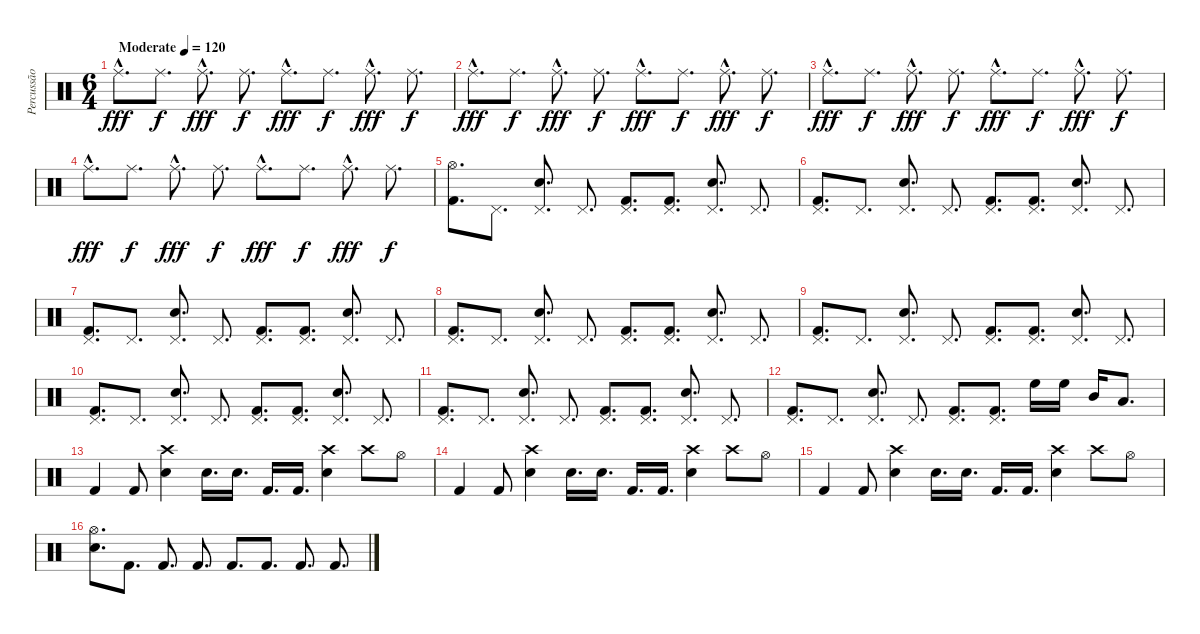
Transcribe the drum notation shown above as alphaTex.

\track ("Percussão" "Percussão") {solo instrument percussion}
\staff {score}
\articulation defaults
\ts (6 4)
\tempo (120 "Moderate")
\clef neutral
\ks c "Ride (middle)"{hac}.8{d dy fff} "Ride (middle)".8{d dy f} "Ride (middle)"{hac}.8{d dy fff} "Ride (middle)".8{d dy f} "Ride (middle)"{hac}.8{d dy fff} "Ride (middle)".8{d dy f} "Ride (middle)"{hac}.8{d dy fff} "Ride (middle)".8{d dy f}
|
"Ride (middle)"{hac}.8{d dy fff} "Ride (middle)".8{d dy f} "Ride (middle)"{hac}.8{d dy fff} "Ride (middle)".8{d dy f} "Ride (middle)"{hac}.8{d dy fff} "Ride (middle)".8{d dy f} "Ride (middle)"{hac}.8{d dy fff} "Ride (middle)".8{d dy f} |
"Ride (middle)"{hac}.8{d dy fff} "Ride (middle)".8{d dy f} "Ride (middle)"{hac}.8{d dy fff} "Ride (middle)".8{d dy f} "Ride (middle)"{hac}.8{d dy fff} "Ride (middle)".8{d dy f} "Ride (middle)"{hac}.8{d dy fff} "Ride (middle)".8{d dy f} |
"Ride (middle)"{hac}.8{d dy fff} "Ride (middle)".8{d dy f} "Ride (middle)"{hac}.8{d dy fff} "Ride (middle)".8{d dy f} "Ride (middle)"{hac}.8{d dy fff} "Ride (middle)".8{d dy f} "Ride (middle)"{hac}.8{d dy fff} "Ride (middle)".8{d dy f} |
("Kick (hit) 2" "Hi-Hat (open)").8{d} "Pedal Hi-Hat (hit)".8{d} ("Snare (hit) 2" "Pedal Hi-Hat (hit)").8{d} "Pedal Hi-Hat (hit)".8{d} ("Kick (hit) 2" "Pedal Hi-Hat (hit)").8{d} ("Kick (hit) 2" "Pedal Hi-Hat (hit)").8{d} ("Snare (hit) 2" "Pedal Hi-Hat (hit)").8{d} "Pedal Hi-Hat (hit)".8{d} |
("Kick (hit) 2" "Pedal Hi-Hat (hit)").8{d} "Pedal Hi-Hat (hit)".8{d} ("Snare (hit) 2" "Pedal Hi-Hat (hit)").8{d} "Pedal Hi-Hat (hit)".8{d} ("Kick (hit) 2" "Pedal Hi-Hat (hit)").8{d} ("Kick (hit) 2" "Pedal Hi-Hat (hit)").8{d} ("Snare (hit) 2" "Pedal Hi-Hat (hit)").8{d} "Pedal Hi-Hat (hit)".8{d} |
("Kick (hit) 2" "Pedal Hi-Hat (hit)").8{d} "Pedal Hi-Hat (hit)".8{d} ("Snare (hit) 2" "Pedal Hi-Hat (hit)").8{d} "Pedal Hi-Hat (hit)".8{d} ("Kick (hit) 2" "Pedal Hi-Hat (hit)").8{d} ("Kick (hit) 2" "Pedal Hi-Hat (hit)").8{d} ("Snare (hit) 2" "Pedal Hi-Hat (hit)").8{d} "Pedal Hi-Hat (hit)".8{d} |
("Kick (hit) 2" "Pedal Hi-Hat (hit)").8{d} "Pedal Hi-Hat (hit)".8{d} ("Snare (hit) 2" "Pedal Hi-Hat (hit)").8{d} "Pedal Hi-Hat (hit)".8{d} ("Kick (hit) 2" "Pedal Hi-Hat (hit)").8{d} ("Kick (hit) 2" "Pedal Hi-Hat (hit)").8{d} ("Snare (hit) 2" "Pedal Hi-Hat (hit)").8{d} "Pedal Hi-Hat (hit)".8{d} |
("Kick (hit) 2" "Pedal Hi-Hat (hit)").8{d} "Pedal Hi-Hat (hit)".8{d} ("Snare (hit) 2" "Pedal Hi-Hat (hit)").8{d} "Pedal Hi-Hat (hit)".8{d} ("Kick (hit) 2" "Pedal Hi-Hat (hit)").8{d} ("Kick (hit) 2" "Pedal Hi-Hat (hit)").8{d} ("Snare (hit) 2" "Pedal Hi-Hat (hit)").8{d} "Pedal Hi-Hat (hit)".8{d} |
("Kick (hit) 2" "Pedal Hi-Hat (hit)").8{d} "Pedal Hi-Hat (hit)".8{d} ("Snare (hit) 2" "Pedal Hi-Hat (hit)").8{d} "Pedal Hi-Hat (hit)".8{d} ("Kick (hit) 2" "Pedal Hi-Hat (hit)").8{d} ("Kick (hit) 2" "Pedal Hi-Hat (hit)").8{d} ("Snare (hit) 2" "Pedal Hi-Hat (hit)").8{d} "Pedal Hi-Hat (hit)".8{d} |
("Kick (hit) 2" "Pedal Hi-Hat (hit)").8{d} "Pedal Hi-Hat (hit)".8{d} ("Snare (hit) 2" "Pedal Hi-Hat (hit)").8{d} "Pedal Hi-Hat (hit)".8{d} ("Kick (hit) 2" "Pedal Hi-Hat (hit)").8{d} ("Kick (hit) 2" "Pedal Hi-Hat (hit)").8{d} ("Snare (hit) 2" "Pedal Hi-Hat (hit)").8{d} "Pedal Hi-Hat (hit)".8{d} |
("Kick (hit) 2" "Pedal Hi-Hat (hit)").8{d} "Pedal Hi-Hat (hit)".8{d} ("Snare (hit) 2" "Pedal Hi-Hat (hit)").8{d} "Pedal Hi-Hat (hit)".8{d} ("Kick (hit) 2" "Pedal Hi-Hat (hit)").8{d} ("Kick (hit) 2" "Pedal Hi-Hat (hit)").8{d} "High Floor Tom (hit)".16 "High Floor Tom (hit)".16 "Mid Tom (hit)".16 "Low Tom (hit)".8{d} |
"Kick (hit) 2".4 "Kick (hit) 2".8 ("Snare (hit) 2" "Crash high (hit)").4 "Snare (hit) 2".16{d} "Snare (hit) 2".16{d} "Kick (hit) 2".16{d} "Kick (hit) 2".16{d} ("Snare (hit) 2" "Crash high (hit)").4 "Crash high (hit)".8 "Hi-Hat (open)".8 |
"Kick (hit) 2".4 "Kick (hit) 2".8 ("Snare (hit) 2" "Crash high (hit)").4 "Snare (hit) 2".16{d} "Snare (hit) 2".16{d} "Kick (hit) 2".16{d} "Kick (hit) 2".16{d} ("Snare (hit) 2" "Crash high (hit)").4 "Crash high (hit)".8 "Hi-Hat (open)".8 |
"Kick (hit) 2".4 "Kick (hit) 2".8 ("Snare (hit) 2" "Crash high (hit)").4 "Snare (hit) 2".16{d} "Snare (hit) 2".16{d} "Kick (hit) 2".16{d} "Kick (hit) 2".16{d} ("Snare (hit) 2" "Crash high (hit)").4 "Crash high (hit)".8 "Hi-Hat (open)".8 |
("Snare (hit) 2" "Hi-Hat (open)").8{d} "Kick (hit) 2".8{d} "Kick (hit) 2".8{d} "Kick (hit) 2".8{d} "Kick (hit) 2".8{d} "Kick (hit) 2".8{d} "Kick (hit) 2".8{d} "Kick (hit) 2".8{d}
